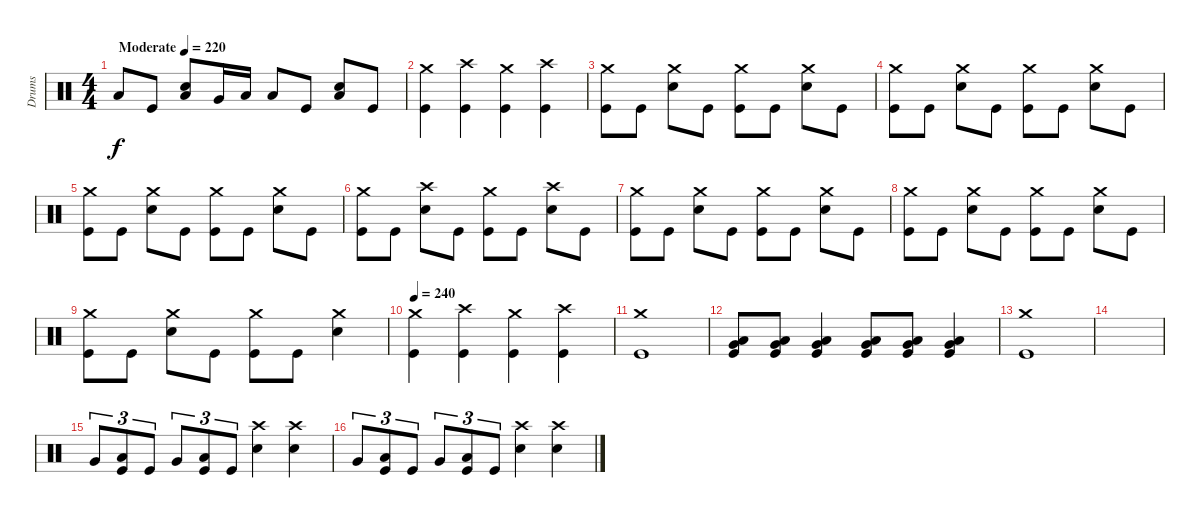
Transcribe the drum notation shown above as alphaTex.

\track ("Drums" "Drums") {instrument percussion}
\staff {score}
\articulation defaults
\ts (4 4)
\tempo (220 "Moderate")
\clef neutral
\ks c "Low Floor Tom (hit)".8{dy f} "Kick (hit)".8
("Low Floor Tom (hit)" "Electric Snare (hit)").8 "Very Low Tom (hit)".16 "Low Floor Tom (hit)".16 "Low Floor Tom (hit)".8 "Kick (hit)".8 ("Low Floor Tom (hit)" "Electric Snare (hit)").8 "Kick (hit)".8 |
("Crash medium (hit)" "Kick (hit)").4 ("Crash high (hit)" "Kick (hit)").4 ("Crash medium (hit)" "Kick (hit)").4 ("Crash high (hit)" "Kick (hit)").4 |
("Crash medium (hit)" "Kick (hit)").8 "Kick (hit)".8 ("Crash medium (hit)" "Electric Snare (hit)").8 "Kick (hit)".8 ("Crash medium (hit)" "Kick (hit)").8 "Kick (hit)".8 ("Crash medium (hit)" "Electric Snare (hit)").8 "Kick (hit)".8 |
("Crash medium (hit)" "Kick (hit)").8 "Kick (hit)".8 ("Crash medium (hit)" "Electric Snare (hit)").8 "Kick (hit)".8 ("Crash medium (hit)" "Kick (hit)").8 "Kick (hit)".8 ("Crash medium (hit)" "Electric Snare (hit)").8 "Kick (hit)".8 |
("Crash medium (hit)" "Kick (hit)").8 "Kick (hit)".8 ("Crash medium (hit)" "Electric Snare (hit)").8 "Kick (hit)".8 ("Crash medium (hit)" "Kick (hit)").8 "Kick (hit)".8 ("Crash medium (hit)" "Electric Snare (hit)").8 "Kick (hit)".8 |
("Crash medium (hit)" "Kick (hit)").8 "Kick (hit)".8 ("Crash high (hit)" "Electric Snare (hit)").8 "Kick (hit)".8 ("Crash medium (hit)" "Kick (hit)").8 "Kick (hit)".8 ("Crash high (hit)" "Electric Snare (hit)").8 "Kick (hit)".8 |
("Crash medium (hit)" "Kick (hit)").8 "Kick (hit)".8 ("Crash medium (hit)" "Electric Snare (hit)").8 "Kick (hit)".8 ("Crash medium (hit)" "Kick (hit)").8 "Kick (hit)".8 ("Crash medium (hit)" "Electric Snare (hit)").8 "Kick (hit)".8 |
("Crash medium (hit)" "Kick (hit)").8 "Kick (hit)".8 ("Crash medium (hit)" "Electric Snare (hit)").8 "Kick (hit)".8 ("Crash medium (hit)" "Kick (hit)").8 "Kick (hit)".8 ("Crash medium (hit)" "Electric Snare (hit)").8 "Kick (hit)".8 |
("Crash medium (hit)" "Kick (hit)").8 "Kick (hit)".8 ("Crash medium (hit)" "Electric Snare (hit)").8 "Kick (hit)".8 ("Crash medium (hit)" "Kick (hit)").8 "Kick (hit)".8 ("Crash medium (hit)" "Electric Snare (hit)").4 |
\tempo 240
("Crash medium (hit)" "Kick (hit)").4 ("Crash high (hit)" "Kick (hit)").4 ("Crash medium (hit)" "Kick (hit)").4 ("Crash high (hit)" "Kick (hit)").4 |
("Crash medium (hit)" "Kick (hit)").1 |
("Low Floor Tom (hit)" "Very Low Tom (hit)" "Kick (hit)").8 ("Low Floor Tom (hit)" "Very Low Tom (hit)" "Kick (hit)").8 ("Low Floor Tom (hit)" "Very Low Tom (hit)" "Kick (hit)").4 ("Low Floor Tom (hit)" "Very Low Tom (hit)" "Kick (hit)").8 ("Low Floor Tom (hit)" "Very Low Tom (hit)" "Kick (hit)").8 ("Low Floor Tom (hit)" "Very Low Tom (hit)" "Kick (hit)").4 |
("Crash medium (hit)" "Kick (hit)").1 |
|
"Very Low Tom (hit)".8{tu (3 2)} ("Low Floor Tom (hit)" "Kick (hit)").8{tu (3 2)} "Kick (hit)".8{tu (3 2)} "Very Low Tom (hit)".8{tu (3 2)} ("Low Floor Tom (hit)" "Kick (hit)").8{tu (3 2)} "Kick (hit)".8{tu (3 2)} ("Crash high (hit)" "Electric Snare (hit)").4 ("Crash high (hit)" "Electric Snare (hit)").4 |
"Very Low Tom (hit)".8{tu (3 2)} ("Low Floor Tom (hit)" "Kick (hit)").8{tu (3 2)} "Kick (hit)".8{tu (3 2)} "Very Low Tom (hit)".8{tu (3 2)} ("Low Floor Tom (hit)" "Kick (hit)").8{tu (3 2)} "Kick (hit)".8{tu (3 2)} ("Crash high (hit)" "Electric Snare (hit)").4 ("Crash high (hit)" "Electric Snare (hit)").4
